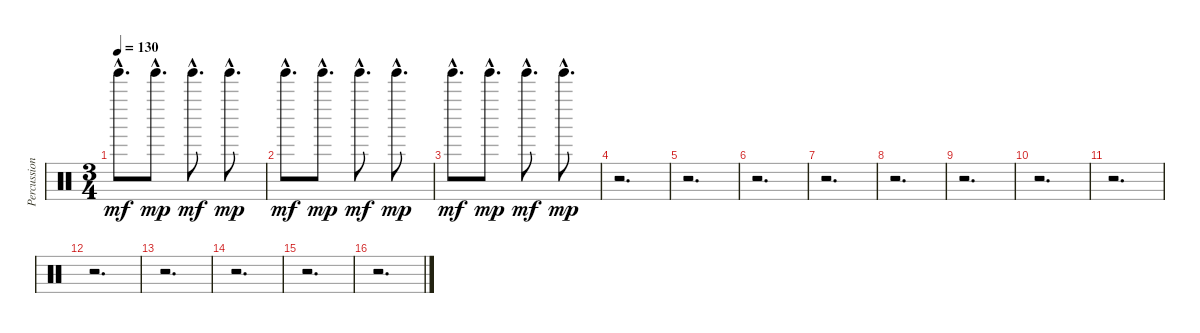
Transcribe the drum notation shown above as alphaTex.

\track ("Percussion" "Percussion") {instrument percussion}
\staff {score}
\articulation defaults
\ts (3 4)
\tempo 130
\clef neutral
\ks c "Tinkle Bell (hit)"{hac}.8{d dy mf volume 4} "Tinkle Bell (hit)"{hac}.8{d dy mp volume 4} "Tinkle Bell (hit)"{hac}.8{d dy mf volume 4} "Tinkle Bell (hit)"{hac}.8{d dy mp volume 3}
|
"Tinkle Bell (hit)"{hac}.8{d dy mf volume 3} "Tinkle Bell (hit)"{hac}.8{d dy mp volume 3} "Tinkle Bell (hit)"{hac}.8{d dy mf volume 3} "Tinkle Bell (hit)"{hac}.8{d dy mp volume 2} |
"Tinkle Bell (hit)"{hac}.8{d dy mf volume 2} "Tinkle Bell (hit)"{hac}.8{d dy mp volume 2} "Tinkle Bell (hit)"{hac}.8{d dy mf volume 2} "Tinkle Bell (hit)"{hac}.8{d dy mp volume 2} |
r.2{d} |
r.2{d} |
r.2{d} |
r.2{d} |
r.2{d} |
r.2{d} |
r.2{d} |
r.2{d} |
r.2{d} |
r.2{d} |
r.2{d} |
r.2{d} |
r.2{d}
